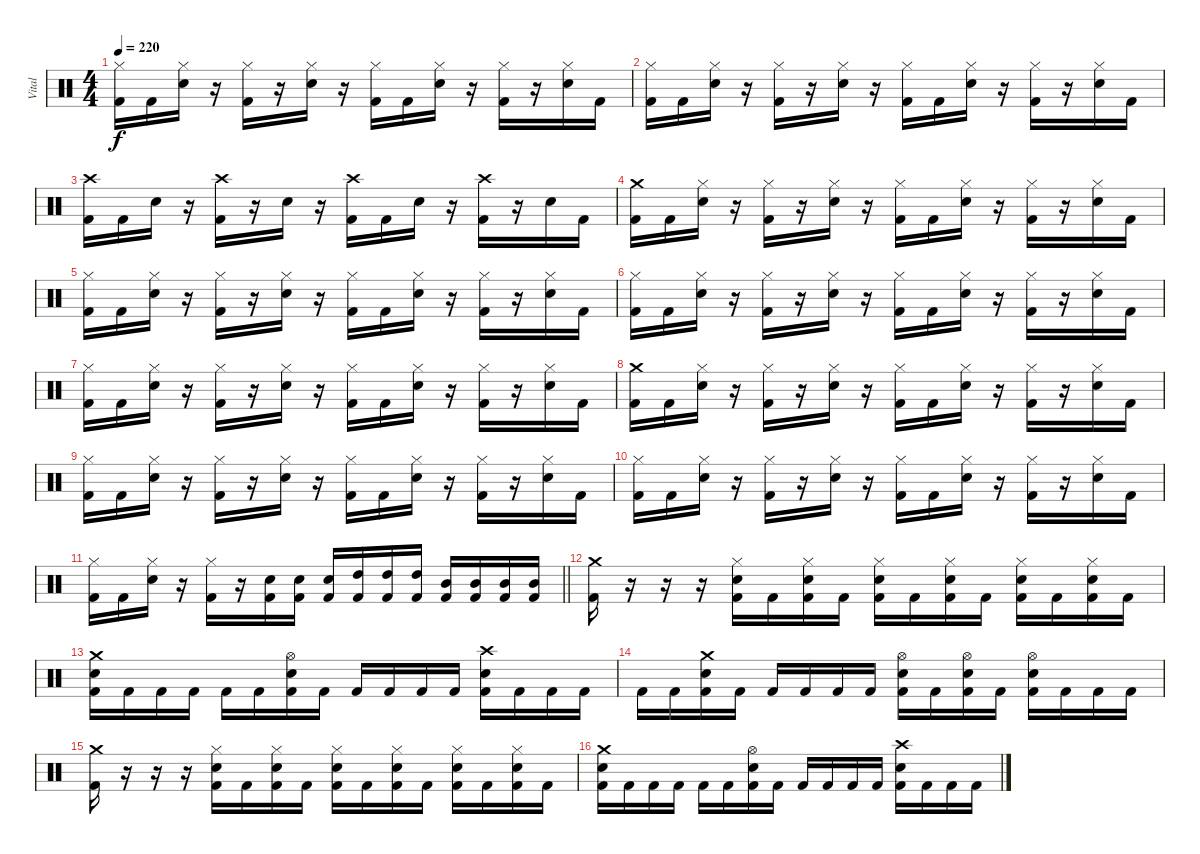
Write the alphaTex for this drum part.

\track ("Vital" "Vital") {instrument percussion}
\staff {score}
\articulation defaults
\ts (4 4)
\tempo 220
\clef neutral
\ks c
("Hi-Hat (closed)" "Kick (hit) 2").16{dy f} "Kick (hit) 2".16 ("Hi-Hat (closed)" "Snare (hit) 2").16 r.16 ("Hi-Hat (closed)" "Kick (hit) 2").16 r.16 ("Hi-Hat (closed)" "Snare (hit) 2").16 r.16 ("Hi-Hat (closed)" "Kick (hit) 2").16 "Kick (hit) 2".16 ("Hi-Hat (closed)" "Snare (hit) 2").16 r.16 ("Hi-Hat (closed)" "Kick (hit) 2").16 r.16 ("Hi-Hat (closed)" "Snare (hit) 2").16 "Kick (hit) 2".16 |
("Hi-Hat (closed)" "Kick (hit) 2").16 "Kick (hit) 2".16 ("Hi-Hat (closed)" "Snare (hit) 2").16 r.16 ("Hi-Hat (closed)" "Kick (hit) 2").16 r.16 ("Hi-Hat (closed)" "Snare (hit) 2").16 r.16 ("Hi-Hat (closed)" "Kick (hit) 2").16 "Kick (hit) 2".16 ("Hi-Hat (closed)" "Snare (hit) 2").16 r.16 ("Hi-Hat (closed)" "Kick (hit) 2").16 r.16 ("Hi-Hat (closed)" "Snare (hit) 2").16 "Kick (hit) 2".16 |
("Crash high (hit)" "Kick (hit) 2").16 "Kick (hit) 2".16 "Snare (hit) 2".16 r.16 ("Crash high (hit)" "Kick (hit) 2").16 r.16 "Snare (hit) 2".16 r.16 ("Crash high (hit)" "Kick (hit) 2").16 "Kick (hit) 2".16 "Snare (hit) 2".16 r.16 ("Crash high (hit)" "Kick (hit) 2").16 r.16 "Snare (hit) 2".16 "Kick (hit) 2".16 |
("Crash medium (hit)" "Kick (hit) 2").16 "Kick (hit) 2".16 ("Hi-Hat (closed)" "Snare (hit) 2").16 r.16 ("Hi-Hat (closed)" "Kick (hit) 2").16 r.16 ("Hi-Hat (closed)" "Snare (hit) 2").16 r.16 ("Hi-Hat (closed)" "Kick (hit) 2").16 "Kick (hit) 2".16 ("Hi-Hat (closed)" "Snare (hit) 2").16 r.16 ("Hi-Hat (closed)" "Kick (hit) 2").16 r.16 ("Hi-Hat (closed)" "Snare (hit) 2").16 "Kick (hit) 2".16 |
("Hi-Hat (closed)" "Kick (hit) 2").16 "Kick (hit) 2".16 ("Hi-Hat (closed)" "Snare (hit) 2").16 r.16 ("Hi-Hat (closed)" "Kick (hit) 2").16 r.16 ("Hi-Hat (closed)" "Snare (hit) 2").16 r.16 ("Hi-Hat (closed)" "Kick (hit) 2").16 "Kick (hit) 2".16 ("Hi-Hat (closed)" "Snare (hit) 2").16 r.16 ("Hi-Hat (closed)" "Kick (hit) 2").16 r.16 ("Hi-Hat (closed)" "Snare (hit) 2").16 "Kick (hit) 2".16 |
("Hi-Hat (closed)" "Kick (hit) 2").16 "Kick (hit) 2".16 ("Hi-Hat (closed)" "Snare (hit) 2").16 r.16 ("Hi-Hat (closed)" "Kick (hit) 2").16 r.16 ("Hi-Hat (closed)" "Snare (hit) 2").16 r.16 ("Hi-Hat (closed)" "Kick (hit) 2").16 "Kick (hit) 2".16 ("Hi-Hat (closed)" "Snare (hit) 2").16 r.16 ("Hi-Hat (closed)" "Kick (hit) 2").16 r.16 ("Hi-Hat (closed)" "Snare (hit) 2").16 "Kick (hit) 2".16 |
("Hi-Hat (closed)" "Kick (hit) 2").16 "Kick (hit) 2".16 ("Hi-Hat (closed)" "Snare (hit) 2").16 r.16 ("Hi-Hat (closed)" "Kick (hit) 2").16 r.16 ("Hi-Hat (closed)" "Snare (hit) 2").16 r.16 ("Hi-Hat (closed)" "Kick (hit) 2").16 "Kick (hit) 2".16 ("Hi-Hat (closed)" "Snare (hit) 2").16 r.16 ("Hi-Hat (closed)" "Kick (hit) 2").16 r.16 ("Hi-Hat (closed)" "Snare (hit) 2").16 "Kick (hit) 2".16 |
("Crash medium (hit)" "Kick (hit) 2").16 "Kick (hit) 2".16 ("Hi-Hat (closed)" "Snare (hit) 2").16 r.16 ("Hi-Hat (closed)" "Kick (hit) 2").16 r.16 ("Hi-Hat (closed)" "Snare (hit) 2").16 r.16 ("Hi-Hat (closed)" "Kick (hit) 2").16 "Kick (hit) 2".16 ("Hi-Hat (closed)" "Snare (hit) 2").16 r.16 ("Hi-Hat (closed)" "Kick (hit) 2").16 r.16 ("Hi-Hat (closed)" "Snare (hit) 2").16 "Kick (hit) 2".16 |
("Hi-Hat (closed)" "Kick (hit) 2").16 "Kick (hit) 2".16 ("Hi-Hat (closed)" "Snare (hit) 2").16 r.16 ("Hi-Hat (closed)" "Kick (hit) 2").16 r.16 ("Hi-Hat (closed)" "Snare (hit) 2").16 r.16 ("Hi-Hat (closed)" "Kick (hit) 2").16 "Kick (hit) 2".16 ("Hi-Hat (closed)" "Snare (hit) 2").16 r.16 ("Hi-Hat (closed)" "Kick (hit) 2").16 r.16 ("Hi-Hat (closed)" "Snare (hit) 2").16 "Kick (hit) 2".16 |
("Hi-Hat (closed)" "Kick (hit) 2").16 "Kick (hit) 2".16 ("Hi-Hat (closed)" "Snare (hit) 2").16 r.16 ("Hi-Hat (closed)" "Kick (hit) 2").16 r.16 ("Hi-Hat (closed)" "Snare (hit) 2").16 r.16 ("Hi-Hat (closed)" "Kick (hit) 2").16 "Kick (hit) 2".16 ("Hi-Hat (closed)" "Snare (hit) 2").16 r.16 ("Hi-Hat (closed)" "Kick (hit) 2").16 r.16 ("Hi-Hat (closed)" "Snare (hit) 2").16 "Kick (hit) 2".16 |
\barLineRight lightlight
("Hi-Hat (closed)" "Kick (hit) 2").16 "Kick (hit) 2".16 ("Hi-Hat (closed)" "Snare (hit) 2").16 r.16 ("Hi-Hat (closed)" "Kick (hit) 2").16 r.16 ("Snare (hit) 2" "Kick (hit) 2").16 ("Snare (hit) 2" "Kick (hit) 2").16 ("Snare (hit) 2" "Kick (hit) 2").16 ("High Tom (hit)" "Kick (hit) 2").16 ("High Tom (hit)" "Kick (hit) 2").16 ("High Tom (hit)" "Kick (hit) 2").16 ("Mid Tom (hit)" "Kick (hit) 2").16 ("Mid Tom (hit)" "Kick (hit) 2").16 ("Mid Tom (hit)" "Kick (hit) 2").16 ("Mid Tom (hit)" "Kick (hit) 2").16 |
("Crash medium (hit)" "Kick (hit) 2").16 r.16 r.16 r.16 ("Hi-Hat (closed)" "Snare (hit) 2" "Kick (hit) 2").16 "Kick (hit) 2".16 ("Hi-Hat (closed)" "Snare (hit) 2" "Kick (hit) 2").16 "Kick (hit) 2".16 ("Hi-Hat (closed)" "Snare (hit) 2" "Kick (hit) 2").16 "Kick (hit) 2".16 ("Hi-Hat (closed)" "Snare (hit) 2" "Kick (hit) 2").16 "Kick (hit) 2".16 ("Hi-Hat (closed)" "Snare (hit) 2" "Kick (hit) 2").16 "Kick (hit) 2".16 ("Hi-Hat (closed)" "Snare (hit) 2" "Kick (hit) 2").16 "Kick (hit) 2".16 |
("Crash medium (hit)" "Snare (hit) 2" "Kick (hit) 2").16 "Kick (hit) 2".16 "Kick (hit) 2".16 "Kick (hit) 2".16 "Kick (hit) 2".16 "Kick (hit) 2".16 ("Hi-Hat (open)" "Snare (hit) 2" "Kick (hit) 2").16 "Kick (hit) 2".16 "Kick (hit) 2".16 "Kick (hit) 2".16 "Kick (hit) 2".16 "Kick (hit) 2".16 ("Crash high (hit)" "Snare (hit) 2" "Kick (hit) 2").16 "Kick (hit) 2".16 "Kick (hit) 2".16 "Kick (hit) 2".16 |
"Kick (hit) 2".16 "Kick (hit) 2".16 ("Crash medium (hit)" "Snare (hit) 2" "Kick (hit) 2").16 "Kick (hit) 2".16 "Kick (hit) 2".16 "Kick (hit) 2".16 "Kick (hit) 2".16 "Kick (hit) 2".16 ("Hi-Hat (open)" "Snare (hit) 2" "Kick (hit) 2").16 "Kick (hit) 2".16 ("Hi-Hat (open)" "Snare (hit) 2" "Kick (hit) 2").16 "Kick (hit) 2".16 ("Hi-Hat (open)" "Snare (hit) 2" "Kick (hit) 2").16 "Kick (hit) 2".16 "Kick (hit) 2".16 "Kick (hit) 2".16 |
("Crash medium (hit)" "Kick (hit) 2").16 r.16 r.16 r.16 ("Hi-Hat (closed)" "Snare (hit) 2" "Kick (hit) 2").16 "Kick (hit) 2".16 ("Hi-Hat (closed)" "Snare (hit) 2" "Kick (hit) 2").16 "Kick (hit) 2".16 ("Hi-Hat (closed)" "Snare (hit) 2" "Kick (hit) 2").16 "Kick (hit) 2".16 ("Hi-Hat (closed)" "Snare (hit) 2" "Kick (hit) 2").16 "Kick (hit) 2".16 ("Hi-Hat (closed)" "Snare (hit) 2" "Kick (hit) 2").16 "Kick (hit) 2".16 ("Hi-Hat (closed)" "Snare (hit) 2" "Kick (hit) 2").16 "Kick (hit) 2".16 |
("Crash medium (hit)" "Snare (hit) 2" "Kick (hit) 2").16 "Kick (hit) 2".16 "Kick (hit) 2".16 "Kick (hit) 2".16 "Kick (hit) 2".16 "Kick (hit) 2".16 ("Hi-Hat (open)" "Snare (hit) 2" "Kick (hit) 2").16 "Kick (hit) 2".16 "Kick (hit) 2".16 "Kick (hit) 2".16 "Kick (hit) 2".16 "Kick (hit) 2".16 ("Crash high (hit)" "Snare (hit) 2" "Kick (hit) 2").16 "Kick (hit) 2".16 "Kick (hit) 2".16 "Kick (hit) 2".16
